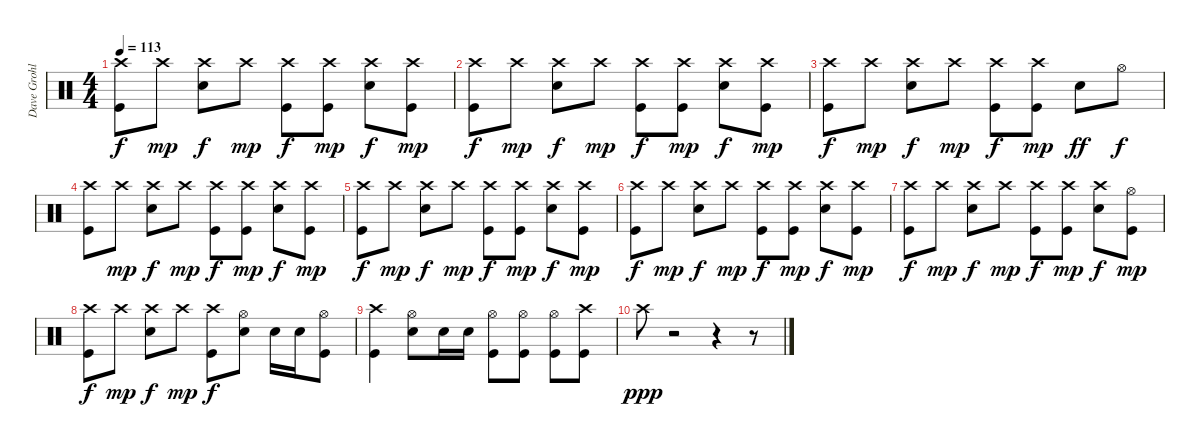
\track ("Dave Grohl" "Dave Grohl") {instrument percussion}
\staff {score}
\articulation defaults
\ts (4 4)
\tempo 113
\clef neutral
\ks c
("Crash high (hit)" "Kick (hit)").8{dy f} "Crash high (hit)".8{dy mp} ("Crash high (hit)" "Electric Snare (hit)").8{dy f} "Crash high (hit)".8{dy mp} ("Crash high (hit)" "Kick (hit)").8{dy f} ("Crash high (hit)" "Kick (hit)").8{dy mp} ("Crash high (hit)" "Electric Snare (hit)").8{dy f} ("Crash high (hit)" "Kick (hit)").8{dy mp} |
("Crash high (hit)" "Kick (hit)").8{dy f} "Crash high (hit)".8{dy mp} ("Crash high (hit)" "Electric Snare (hit)").8{dy f} "Crash high (hit)".8{dy mp} ("Crash high (hit)" "Kick (hit)").8{dy f} ("Crash high (hit)" "Kick (hit)").8{dy mp} ("Crash high (hit)" "Electric Snare (hit)").8{dy f} ("Crash high (hit)" "Kick (hit)").8{dy mp} |
("Crash high (hit)" "Kick (hit)").8{dy f} "Crash high (hit)".8{dy mp} ("Crash high (hit)" "Electric Snare (hit)").8{dy f} "Crash high (hit)".8{dy mp} ("Crash high (hit)" "Kick (hit)").8{dy f} ("Crash high (hit)" "Kick (hit)").8{dy mp} "Electric Snare (hit)".8{dy ff} "Hi-Hat (open)".8{dy f} |
("Crash high (hit)" "Kick (hit)").8 "Crash high (hit)".8{dy mp} ("Crash high (hit)" "Electric Snare (hit)").8{dy f} "Crash high (hit)".8{dy mp} ("Crash high (hit)" "Kick (hit)").8{dy f} ("Crash high (hit)" "Kick (hit)").8{dy mp} ("Crash high (hit)" "Electric Snare (hit)").8{dy f} ("Crash high (hit)" "Kick (hit)").8{dy mp} |
("Crash high (hit)" "Kick (hit)").8{dy f} "Crash high (hit)".8{dy mp} ("Crash high (hit)" "Electric Snare (hit)").8{dy f} "Crash high (hit)".8{dy mp} ("Crash high (hit)" "Kick (hit)").8{dy f} ("Crash high (hit)" "Kick (hit)").8{dy mp} ("Crash high (hit)" "Electric Snare (hit)").8{dy f} ("Crash high (hit)" "Kick (hit)").8{dy mp} |
("Crash high (hit)" "Kick (hit)").8{dy f} "Crash high (hit)".8{dy mp} ("Crash high (hit)" "Electric Snare (hit)").8{dy f} "Crash high (hit)".8{dy mp} ("Crash high (hit)" "Kick (hit)").8{dy f} ("Crash high (hit)" "Kick (hit)").8{dy mp} ("Crash high (hit)" "Electric Snare (hit)").8{dy f} ("Crash high (hit)" "Kick (hit)").8{dy mp} |
("Crash high (hit)" "Kick (hit)").8{dy f} "Crash high (hit)".8{dy mp} ("Crash high (hit)" "Electric Snare (hit)").8{dy f} "Crash high (hit)".8{dy mp} ("Crash high (hit)" "Kick (hit)").8{dy f} ("Crash high (hit)" "Kick (hit)").8{dy mp} ("Crash high (hit)" "Electric Snare (hit)").8{dy f} ("Hi-Hat (open)" "Kick (hit)").8{dy mp} |
("Crash high (hit)" "Kick (hit)").8{dy f} "Crash high (hit)".8{dy mp} ("Crash high (hit)" "Electric Snare (hit)").8{dy f} "Crash high (hit)".8{dy mp} ("Crash high (hit)" "Kick (hit)").8{dy f} ("Hi-Hat (open)" "Electric Snare (hit)").8 "Electric Snare (hit)".16 "Electric Snare (hit)".16 ("Hi-Hat (open)" "Kick (hit)").8 |
("Crash high (hit)" "Kick (hit)").4 ("Hi-Hat (open)" "Electric Snare (hit)").8 "Electric Snare (hit)".16 "Electric Snare (hit)".16 ("Hi-Hat (open)" "Kick (hit)").8 ("Hi-Hat (open)" "Kick (hit)").8 ("Hi-Hat (open)" "Kick (hit)").8 ("Crash high (hit)" "Kick (hit)").8 |
"Crash high (hit)".8{dy ppp} r.2 r.4 r.8
